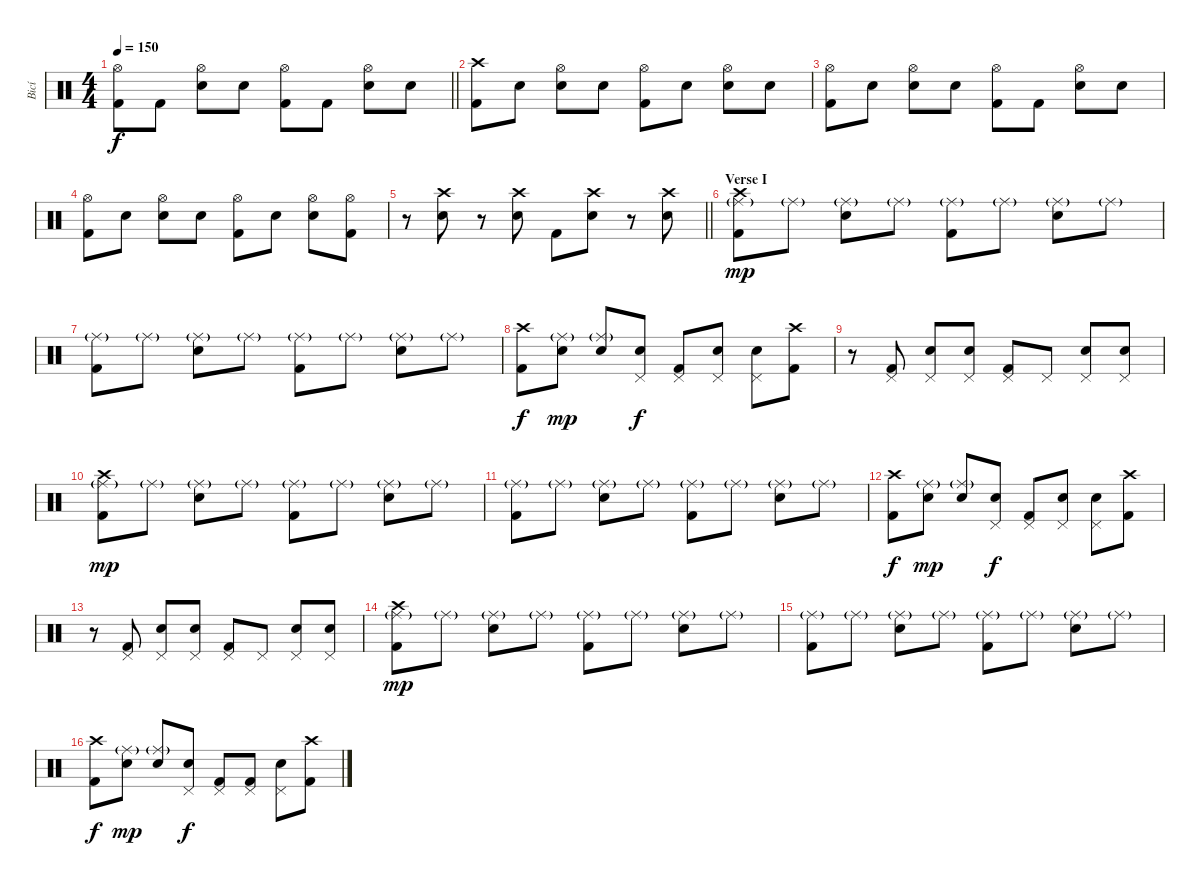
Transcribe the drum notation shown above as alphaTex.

\track ("Bicí" "Bicí") {instrument percussion}
\staff {score}
\articulation defaults
\ts (4 4)
\tempo 150
\clef neutral
\barLineRight lightlight
\ks c
("Hi-Hat (open)" "Kick (hit) 2").8{dy f} "Kick (hit) 2".8 ("Hi-Hat (open)" "Electric Snare (hit)").8 "Snare (hit)".8 ("Hi-Hat (open)" "Kick (hit) 2").8 "Kick (hit) 2".8 ("Hi-Hat (open)" "Electric Snare (hit)").8 "Snare (hit)".8 |
("Crash high (hit)" "Kick (hit) 2").8 "Snare (hit)".8 ("Hi-Hat (open)" "Electric Snare (hit)").8 "Snare (hit)".8 ("Hi-Hat (open)" "Kick (hit) 2").8 "Snare (hit)".8 ("Hi-Hat (open)" "Electric Snare (hit)").8 "Snare (hit)".8 |
("Hi-Hat (open)" "Kick (hit) 2").8 "Snare (hit)".8 ("Hi-Hat (open)" "Electric Snare (hit)").8 "Snare (hit)".8 ("Hi-Hat (open)" "Kick (hit) 2").8 "Kick (hit) 2".8 ("Hi-Hat (open)" "Electric Snare (hit)").8 "Snare (hit)".8 |
("Hi-Hat (open)" "Kick (hit) 2").8 "Snare (hit)".8 ("Hi-Hat (open)" "Electric Snare (hit)").8 "Snare (hit)".8 ("Hi-Hat (open)" "Kick (hit) 2").8 "Snare (hit)".8 ("Hi-Hat (open)" "Electric Snare (hit)").8 ("Hi-Hat (open)" "Kick (hit) 2").8 |
\barLineRight lightlight
r.8 ("Crash high (hit)" "Electric Snare (hit)").8 r.8 ("Crash high (hit)" "Electric Snare (hit)").8 "Kick (hit) 2".8 ("Crash high (hit)" "Electric Snare (hit)").8 r.8 ("Crash high (hit)" "Electric Snare (hit)").8 |
\section ("" "Verse I")
("Crash high (hit)" "Ride (middle)"{g} "Kick (hit) 2").8{dy mp} "Ride (middle)"{g}.8 ("Ride (middle)"{g} "Electric Snare (hit)").8 "Ride (middle)"{g}.8 ("Ride (middle)"{g} "Kick (hit) 2").8 "Ride (middle)"{g}.8 ("Ride (middle)"{g} "Electric Snare (hit)").8 "Ride (middle)"{g}.8 |
("Ride (middle)"{g} "Kick (hit) 2").8 "Ride (middle)"{g}.8 ("Ride (middle)"{g} "Electric Snare (hit)").8 "Ride (middle)"{g}.8 ("Ride (middle)"{g} "Kick (hit) 2").8 "Ride (middle)"{g}.8 ("Ride (middle)"{g} "Electric Snare (hit)").8 "Ride (middle)"{g}.8 |
("Crash high (hit)" "Kick (hit) 2").8{dy f} ("Ride (middle)"{g} "Snare (hit)").8{dy mp} ("Ride (middle)"{g} "Electric Snare (hit)").8 ("Pedal Hi-Hat (hit)" "Snare (hit)").8{dy f} ("Pedal Hi-Hat (hit)" "Kick (hit) 2").8 ("Pedal Hi-Hat (hit)" "Snare (hit)").8 ("Pedal Hi-Hat (hit)" "Electric Snare (hit)").8 ("Crash high (hit)" "Kick (hit) 2").8 |
r.8 ("Pedal Hi-Hat (hit)" "Kick (hit) 2").8 ("Pedal Hi-Hat (hit)" "Electric Snare (hit)").8 ("Pedal Hi-Hat (hit)" "Electric Snare (hit)").8 ("Pedal Hi-Hat (hit)" "Kick (hit) 2").8 "Pedal Hi-Hat (hit)".8 ("Pedal Hi-Hat (hit)" "Electric Snare (hit)").8 ("Pedal Hi-Hat (hit)" "Snare (hit)").8 |
("Crash high (hit)" "Ride (middle)"{g} "Kick (hit) 2").8{dy mp} "Ride (middle)"{g}.8 ("Ride (middle)"{g} "Electric Snare (hit)").8 "Ride (middle)"{g}.8 ("Ride (middle)"{g} "Kick (hit) 2").8 "Ride (middle)"{g}.8 ("Ride (middle)"{g} "Electric Snare (hit)").8 "Ride (middle)"{g}.8 |
("Ride (middle)"{g} "Kick (hit) 2").8 "Ride (middle)"{g}.8 ("Ride (middle)"{g} "Electric Snare (hit)").8 "Ride (middle)"{g}.8 ("Ride (middle)"{g} "Kick (hit) 2").8 "Ride (middle)"{g}.8 ("Ride (middle)"{g} "Electric Snare (hit)").8 "Ride (middle)"{g}.8 |
("Crash high (hit)" "Kick (hit) 2").8{dy f} ("Ride (middle)"{g} "Snare (hit)").8{dy mp} ("Ride (middle)"{g} "Electric Snare (hit)").8 ("Pedal Hi-Hat (hit)" "Snare (hit)").8{dy f} ("Pedal Hi-Hat (hit)" "Kick (hit) 2").8 ("Pedal Hi-Hat (hit)" "Snare (hit)").8 ("Pedal Hi-Hat (hit)" "Electric Snare (hit)").8 ("Crash high (hit)" "Kick (hit) 2").8 |
r.8 ("Pedal Hi-Hat (hit)" "Kick (hit) 2").8 ("Pedal Hi-Hat (hit)" "Electric Snare (hit)").8 ("Pedal Hi-Hat (hit)" "Electric Snare (hit)").8 ("Pedal Hi-Hat (hit)" "Kick (hit) 2").8 "Pedal Hi-Hat (hit)".8 ("Pedal Hi-Hat (hit)" "Electric Snare (hit)").8 ("Pedal Hi-Hat (hit)" "Snare (hit)").8 |
("Crash high (hit)" "Ride (middle)"{g} "Kick (hit) 2").8{dy mp} "Ride (middle)"{g}.8 ("Ride (middle)"{g} "Electric Snare (hit)").8 "Ride (middle)"{g}.8 ("Ride (middle)"{g} "Kick (hit) 2").8 "Ride (middle)"{g}.8 ("Ride (middle)"{g} "Electric Snare (hit)").8 "Ride (middle)"{g}.8 |
("Ride (middle)"{g} "Kick (hit) 2").8 "Ride (middle)"{g}.8 ("Ride (middle)"{g} "Electric Snare (hit)").8 "Ride (middle)"{g}.8 ("Ride (middle)"{g} "Kick (hit) 2").8 "Ride (middle)"{g}.8 ("Ride (middle)"{g} "Electric Snare (hit)").8 "Ride (middle)"{g}.8 |
("Crash high (hit)" "Kick (hit) 2").8{dy f} ("Ride (middle)"{g} "Snare (hit)").8{dy mp} ("Ride (middle)"{g} "Electric Snare (hit)").8 ("Pedal Hi-Hat (hit)" "Snare (hit)").8{dy f} ("Pedal Hi-Hat (hit)" "Kick (hit) 2").8 ("Pedal Hi-Hat (hit)" "Kick (hit) 2").8 ("Pedal Hi-Hat (hit)" "Electric Snare (hit)").8 ("Crash high (hit)" "Kick (hit) 2").8
